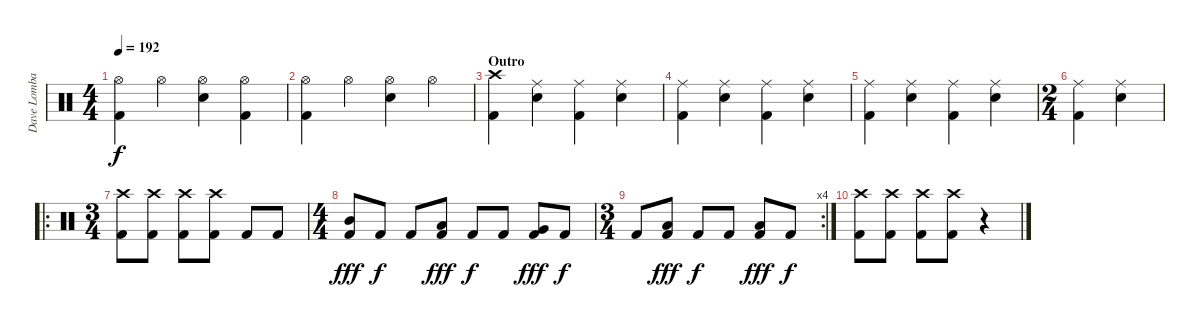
\track ("Dave Lombardo" "Dave Lomba") {instrument percussion}
\staff {score}
\articulation defaults
\ts (4 4)
\tempo 192
\clef neutral
\ks c
("Hi-Hat (open)" "Kick (hit) 2").4{dy f} "Hi-Hat (open)".4 ("Hi-Hat (open)" "Electric Snare (hit)").4 ("Hi-Hat (open)" "Kick (hit) 2").4 |
("Hi-Hat (open)" "Kick (hit) 2").4 "Hi-Hat (open)".4 ("Hi-Hat (open)" "Electric Snare (hit)").4 "Hi-Hat (open)".4 |
\section ("" "Outro")
("Crash high (hit)" "Kick (hit) 2").4 ("Ride (middle)" "Electric Snare (hit)").4 ("Ride (middle)" "Kick (hit) 2").4 ("Ride (middle)" "Electric Snare (hit)").4 |
("Ride (middle)" "Kick (hit) 2").4 ("Ride (middle)" "Electric Snare (hit)").4 ("Ride (middle)" "Kick (hit) 2").4 ("Ride (middle)" "Electric Snare (hit)").4 |
("Ride (middle)" "Kick (hit) 2").4 ("Ride (middle)" "Electric Snare (hit)").4 ("Ride (middle)" "Kick (hit) 2").4 ("Ride (middle)" "Electric Snare (hit)").4 |
\ts (2 4)
("Ride (middle)" "Kick (hit) 2").4 ("Ride (middle)" "Electric Snare (hit)").4 |
\ro
\ts (3 4)
("Crash high (hit)" "Kick (hit) 2").8 ("Crash high (hit)" "Kick (hit) 2").8 ("Crash high (hit)" "Kick (hit) 2").8 ("Crash high (hit)" "Kick (hit) 2").8 "Kick (hit) 2".8 "Kick (hit) 2".8 |
\ts (4 4)
("Mid Tom (hit)" "Kick (hit) 2").8{dy fff} "Kick (hit) 2".8{dy f} "Kick (hit) 2".8 ("Low Tom (hit)" "Kick (hit) 2").8{dy fff} "Kick (hit) 2".8{dy f} "Kick (hit) 2".8 ("Very Low Tom (hit)" "Kick (hit) 2").8{dy fff} "Kick (hit) 2".8{dy f} |
\rc 4
\ts (3 4)
"Kick (hit) 2".8 ("Low Floor Tom (hit)" "Kick (hit) 2").8{dy fff} "Kick (hit) 2".8{dy f} "Kick (hit) 2".8 ("Low Floor Tom (hit)" "Kick (hit) 2").8{dy fff} "Kick (hit) 2".8{dy f} |
("Crash high (hit)" "Kick (hit) 2").8 ("Crash high (hit)" "Kick (hit) 2").8 ("Crash high (hit)" "Kick (hit) 2").8 ("Crash high (hit)" "Kick (hit) 2").8 r.4
